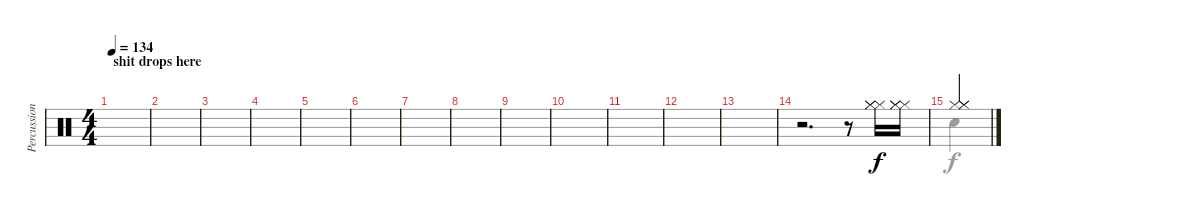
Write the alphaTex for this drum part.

\track ("Percussion" "Percussion") {instrument percussion}
\staff {score}
\articulation defaults
\voice
\ts (4 4)
\section ("" "shit drops here")
\tempo 134
\clef neutral
\ks c
|
|
|
|
|
|
|
|
|
|
|
|
|
r.2{d} r.8 ("Hi-Hat (closed)" "Hi-Hat (closed)" "Hi-Hat (closed)").16 ("Hi-Hat (closed)" "Hi-Hat (closed)" "Hi-Hat (closed)").16 |
("Hi-Hat (closed)" "Hi-Hat (closed)" "Hi-Hat (closed)").4 |
\voice
\clef neutral
\ottava regular
\simile none
\ks c
|
|
|
|
|
|
|
|
|
|
|
|
|
|
"Snare (hit)".4 |
